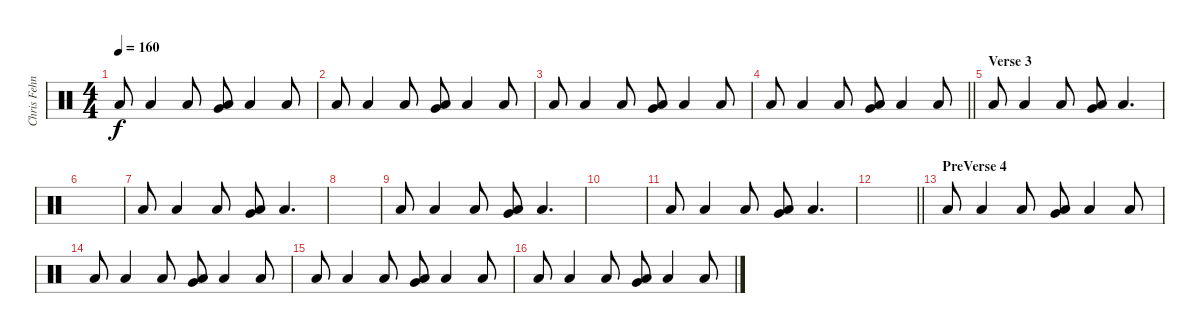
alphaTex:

\track ("Chris Fehn" "Chris Fehn") {instrument percussion}
\staff {score}
\articulation defaults
\ts (4 4)
\tempo 160
\clef neutral
\ks c "Low Floor Tom (hit)".8{dy f} "Low Floor Tom (hit)".4 "Low Floor Tom (hit)".8
("Very Low Tom (hit)" "Low Floor Tom (hit)").8 "Low Floor Tom (hit)".4 "Low Floor Tom (hit)".8 |
"Low Floor Tom (hit)".8 "Low Floor Tom (hit)".4 "Low Floor Tom (hit)".8 ("Very Low Tom (hit)" "Low Floor Tom (hit)").8 "Low Floor Tom (hit)".4 "Low Floor Tom (hit)".8 |
"Low Floor Tom (hit)".8 "Low Floor Tom (hit)".4 "Low Floor Tom (hit)".8 ("Very Low Tom (hit)" "Low Floor Tom (hit)").8 "Low Floor Tom (hit)".4 "Low Floor Tom (hit)".8 |
\barLineRight lightlight "Low Floor Tom (hit)".8 "Low Floor Tom (hit)".4 "Low Floor Tom (hit)".8
("Very Low Tom (hit)" "Low Floor Tom (hit)").8 "Low Floor Tom (hit)".4 "Low Floor Tom (hit)".8 |
\section ("" "Verse 3")
"Low Floor Tom (hit)".8 "Low Floor Tom (hit)".4 "Low Floor Tom (hit)".8 ("Very Low Tom (hit)" "Low Floor Tom (hit)").8 "Low Floor Tom (hit)".4{d} |
|
"Low Floor Tom (hit)".8 "Low Floor Tom (hit)".4 "Low Floor Tom (hit)".8 ("Very Low Tom (hit)" "Low Floor Tom (hit)").8 "Low Floor Tom (hit)".4{d} |
|
"Low Floor Tom (hit)".8 "Low Floor Tom (hit)".4 "Low Floor Tom (hit)".8 ("Very Low Tom (hit)" "Low Floor Tom (hit)").8 "Low Floor Tom (hit)".4{d} |
|
"Low Floor Tom (hit)".8 "Low Floor Tom (hit)".4 "Low Floor Tom (hit)".8 ("Very Low Tom (hit)" "Low Floor Tom (hit)").8 "Low Floor Tom (hit)".4{d} |
\barLineRight lightlight
|
\section ("" "PreVerse 4")
"Low Floor Tom (hit)".8 "Low Floor Tom (hit)".4 "Low Floor Tom (hit)".8 ("Very Low Tom (hit)" "Low Floor Tom (hit)").8 "Low Floor Tom (hit)".4 "Low Floor Tom (hit)".8 |
"Low Floor Tom (hit)".8 "Low Floor Tom (hit)".4 "Low Floor Tom (hit)".8 ("Very Low Tom (hit)" "Low Floor Tom (hit)").8 "Low Floor Tom (hit)".4 "Low Floor Tom (hit)".8 |
"Low Floor Tom (hit)".8 "Low Floor Tom (hit)".4 "Low Floor Tom (hit)".8 ("Very Low Tom (hit)" "Low Floor Tom (hit)").8 "Low Floor Tom (hit)".4 "Low Floor Tom (hit)".8 |
"Low Floor Tom (hit)".8 "Low Floor Tom (hit)".4 "Low Floor Tom (hit)".8 ("Very Low Tom (hit)" "Low Floor Tom (hit)").8 "Low Floor Tom (hit)".4 "Low Floor Tom (hit)".8
